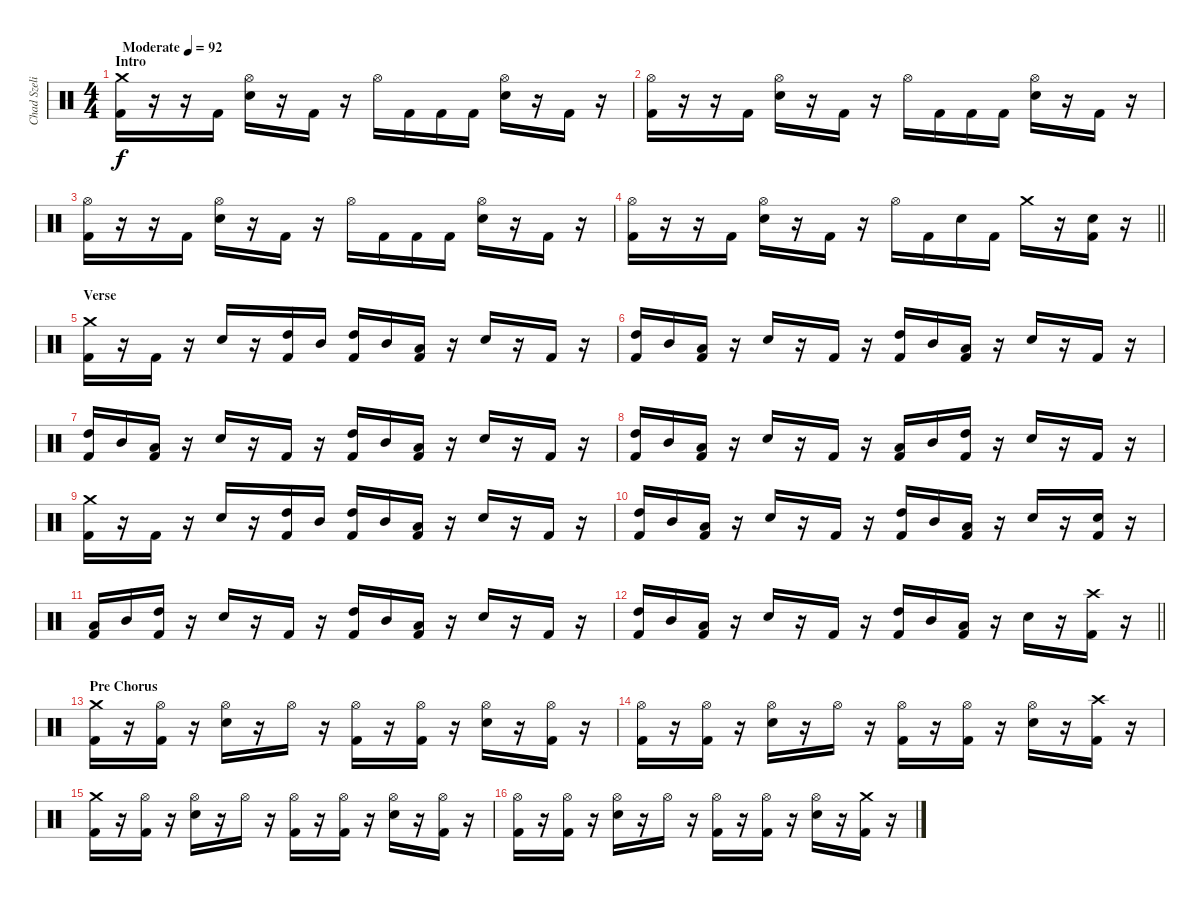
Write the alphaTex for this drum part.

\track ("Chad Szeliga" "Chad Szeli") {instrument percussion}
\staff {score}
\articulation defaults
\ts (4 4)
\section ("" "Intro")
\tempo (92 "Moderate")
\clef neutral
\ks c
("Crash medium (hit)" "Kick (hit) 2").16{dy f} r.16 r.16 "Kick (hit) 2".16 ("Hi-Hat (open)" "Electric Snare (hit)").16 r.16 "Kick (hit) 2".16 r.16 "Hi-Hat (open)".16 "Kick (hit) 2".16 "Kick (hit) 2".16 "Kick (hit) 2".16 ("Hi-Hat (open)" "Electric Snare (hit)").16 r.16 "Kick (hit) 2".16 r.16 |
("Hi-Hat (open)" "Kick (hit) 2").16 r.16 r.16 "Kick (hit) 2".16 ("Hi-Hat (open)" "Electric Snare (hit)").16 r.16 "Kick (hit) 2".16 r.16 "Hi-Hat (open)".16 "Kick (hit) 2".16 "Kick (hit) 2".16 "Kick (hit) 2".16 ("Hi-Hat (open)" "Electric Snare (hit)").16 r.16 "Kick (hit) 2".16 r.16 |
("Hi-Hat (open)" "Kick (hit) 2").16 r.16 r.16 "Kick (hit) 2".16 ("Hi-Hat (open)" "Electric Snare (hit)").16 r.16 "Kick (hit) 2".16 r.16 "Hi-Hat (open)".16 "Kick (hit) 2".16 "Kick (hit) 2".16 "Kick (hit) 2".16 ("Hi-Hat (open)" "Electric Snare (hit)").16 r.16 "Kick (hit) 2".16 r.16 |
\barLineRight lightlight
("Hi-Hat (open)" "Kick (hit) 2").16 r.16 r.16 "Kick (hit) 2".16 ("Hi-Hat (open)" "Electric Snare (hit)").16 r.16 "Kick (hit) 2".16 r.16 "Hi-Hat (open)".16 "Kick (hit) 2".16 "Electric Snare (hit)".16 "Kick (hit) 2".16 "Crash medium (hit)".16 r.16 ("Electric Snare (hit)" "Kick (hit) 2").16 r.16 |
\section ("" "Verse")
("Crash medium (hit)" "Kick (hit) 2").16 r.16 "Kick (hit) 2".16 r.16 "Electric Snare (hit)".16 r.16 ("High Tom (hit)" "Kick (hit) 2").16 "Mid Tom (hit)".16 ("High Tom (hit)" "Kick (hit) 2").16 "Mid Tom (hit)".16 ("Low Tom (hit)" "Kick (hit) 2").16 r.16 "Electric Snare (hit)".16 r.16 "Kick (hit) 2".16 r.16 |
("High Tom (hit)" "Kick (hit) 2").16 "Mid Tom (hit)".16 ("Low Tom (hit)" "Kick (hit) 2").16 r.16 "Electric Snare (hit)".16 r.16 "Kick (hit) 2".16 r.16 ("High Tom (hit)" "Kick (hit) 2").16 "Mid Tom (hit)".16 ("Low Tom (hit)" "Kick (hit) 2").16 r.16 "Electric Snare (hit)".16 r.16 "Kick (hit) 2".16 r.16 |
("High Tom (hit)" "Kick (hit) 2").16 "Mid Tom (hit)".16 ("Low Tom (hit)" "Kick (hit) 2").16 r.16 "Electric Snare (hit)".16 r.16 "Kick (hit) 2".16 r.16 ("High Tom (hit)" "Kick (hit) 2").16 "Mid Tom (hit)".16 ("Low Tom (hit)" "Kick (hit) 2").16 r.16 "Electric Snare (hit)".16 r.16 "Kick (hit) 2".16 r.16 |
("High Tom (hit)" "Kick (hit) 2").16 "Mid Tom (hit)".16 ("Low Tom (hit)" "Kick (hit) 2").16 r.16 "Electric Snare (hit)".16 r.16 "Kick (hit) 2".16 r.16 ("Low Tom (hit)" "Kick (hit) 2").16 "Mid Tom (hit)".16 ("High Tom (hit)" "Kick (hit) 2").16 r.16 "Electric Snare (hit)".16 r.16 "Kick (hit) 2".16 r.16 |
("Crash medium (hit)" "Kick (hit) 2").16 r.16 "Kick (hit) 2".16 r.16 "Electric Snare (hit)".16 r.16 ("High Tom (hit)" "Kick (hit) 2").16 "Mid Tom (hit)".16 ("High Tom (hit)" "Kick (hit) 2").16 "Mid Tom (hit)".16 ("Low Tom (hit)" "Kick (hit) 2").16 r.16 "Electric Snare (hit)".16 r.16 "Kick (hit) 2".16 r.16 |
("High Tom (hit)" "Kick (hit) 2").16 "Mid Tom (hit)".16 ("Low Tom (hit)" "Kick (hit) 2").16 r.16 "Electric Snare (hit)".16 r.16 "Kick (hit) 2".16 r.16 ("High Tom (hit)" "Kick (hit) 2").16 "Mid Tom (hit)".16 ("Low Tom (hit)" "Kick (hit) 2").16 r.16 "Electric Snare (hit)".16 r.16 ("Electric Snare (hit)" "Kick (hit) 2").16 r.16 |
("Low Tom (hit)" "Kick (hit) 2").16 "Mid Tom (hit)".16 ("High Tom (hit)" "Kick (hit) 2").16 r.16 "Electric Snare (hit)".16 r.16 "Kick (hit) 2".16 r.16 ("High Tom (hit)" "Kick (hit) 2").16 "Mid Tom (hit)".16 ("Low Tom (hit)" "Kick (hit) 2").16 r.16 "Electric Snare (hit)".16 r.16 "Kick (hit) 2".16 r.16 |
\barLineRight lightlight
("High Tom (hit)" "Kick (hit) 2").16 "Mid Tom (hit)".16 ("Low Tom (hit)" "Kick (hit) 2").16 r.16 "Electric Snare (hit)".16 r.16 "Kick (hit) 2".16 r.16 ("High Tom (hit)" "Kick (hit) 2").16 "Mid Tom (hit)".16 ("Low Tom (hit)" "Kick (hit) 2").16 r.16 "Electric Snare (hit)".16 r.16 ("Crash high (hit)" "Kick (hit) 2").16 r.16 |
\section ("" "Pre Chorus")
("Crash medium (hit)" "Kick (hit) 2").16 r.16 ("Hi-Hat (open)" "Kick (hit) 2").16 r.16 ("Hi-Hat (open)" "Electric Snare (hit)").16 r.16 "Hi-Hat (open)".16 r.16 ("Hi-Hat (open)" "Kick (hit) 2").16 r.16 ("Hi-Hat (open)" "Kick (hit) 2").16 r.16 ("Hi-Hat (open)" "Electric Snare (hit)").16 r.16 ("Hi-Hat (open)" "Kick (hit) 2").16 r.16 |
("Hi-Hat (open)" "Kick (hit) 2").16 r.16 ("Hi-Hat (open)" "Kick (hit) 2").16 r.16 ("Hi-Hat (open)" "Electric Snare (hit)").16 r.16 "Hi-Hat (open)".16 r.16 ("Hi-Hat (open)" "Kick (hit) 2").16 r.16 ("Hi-Hat (open)" "Kick (hit) 2").16 r.16 ("Hi-Hat (open)" "Electric Snare (hit)").16 r.16 ("Crash high (hit)" "Kick (hit) 2").16 r.16 |
("Crash medium (hit)" "Kick (hit) 2").16 r.16 ("Hi-Hat (open)" "Kick (hit) 2").16 r.16 ("Hi-Hat (open)" "Electric Snare (hit)").16 r.16 "Hi-Hat (open)".16 r.16 ("Hi-Hat (open)" "Kick (hit) 2").16 r.16 ("Hi-Hat (open)" "Kick (hit) 2").16 r.16 ("Hi-Hat (open)" "Electric Snare (hit)").16 r.16 ("Hi-Hat (open)" "Kick (hit) 2").16 r.16 |
("Hi-Hat (open)" "Kick (hit) 2").16 r.16 ("Hi-Hat (open)" "Kick (hit) 2").16 r.16 ("Hi-Hat (open)" "Electric Snare (hit)").16 r.16 "Hi-Hat (open)".16 r.16 ("Hi-Hat (open)" "Kick (hit) 2").16 r.16 ("Hi-Hat (open)" "Kick (hit) 2").16 r.16 ("Hi-Hat (open)" "Electric Snare (hit)").16 r.16 ("Crash medium (hit)" "Kick (hit) 2").16 r.16
